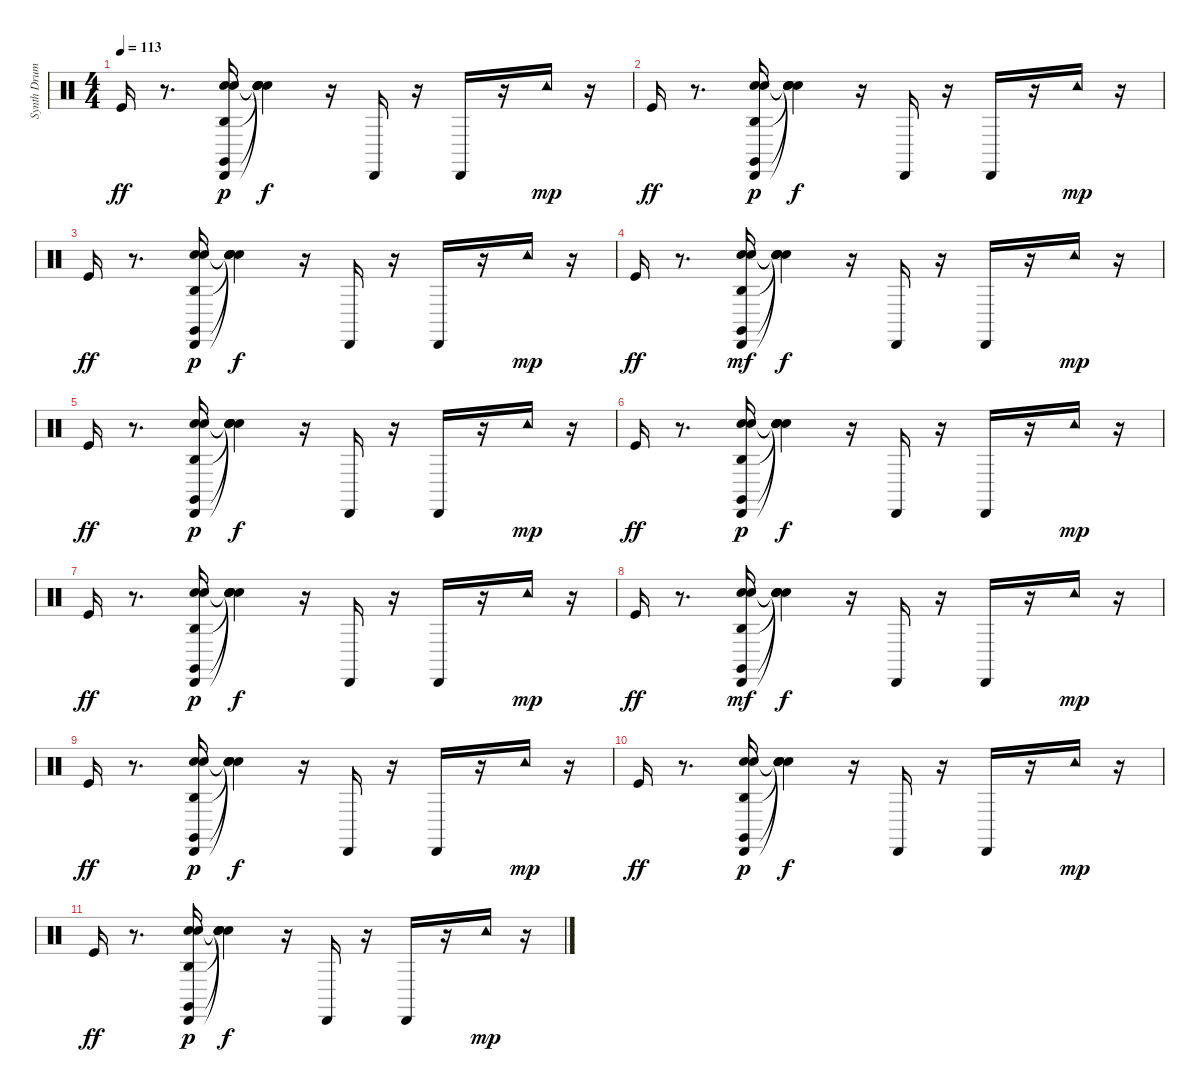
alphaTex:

\track ("Synth Drums" "Synth Drum") {instrument percussion}
\staff {score}
\articulation defaults
\ts (4 4)
\tempo 113
\clef neutral
\ks c "Kick (hit)".16{dy ff}
r.8{d} ("Cabasa (hit)" "Claves (hit)" "Agogo high (hit)" "Electric Snare (hit)" "Snare (hit) 2").16{dy p} ("Snare (hit)"{t} "Snare (hit)"{t} "Snare (hit)"{t} "Snare (hit)"{t} "Snare (hit)"{t}).4{dy f} r.16 "Cabasa (hit)".16 r.16 "Cabasa (hit)".16 r.16 "Tambourine (hit)".16{dy mp} r.16 |
"Kick (hit)".16{dy ff} r.8{d} ("Cabasa (hit)" "Claves (hit)" "Agogo high (hit)" "Electric Snare (hit)" "Snare (hit) 2").16{dy p} ("Snare (hit)"{t} "Snare (hit)"{t} "Snare (hit)"{t} "Snare (hit)"{t} "Snare (hit)"{t}).4{dy f} r.16 "Cabasa (hit)".16 r.16 "Cabasa (hit)".16 r.16 "Tambourine (hit)".16{dy mp} r.16 |
"Kick (hit)".16{dy ff} r.8{d} ("Cabasa (hit)" "Claves (hit)" "Agogo high (hit)" "Electric Snare (hit)" "Snare (hit) 2").16{dy p} ("Snare (hit)"{t} "Snare (hit)"{t} "Snare (hit)"{t} "Snare (hit)"{t} "Snare (hit)"{t}).4{dy f} r.16 "Cabasa (hit)".16 r.16 "Cabasa (hit)".16 r.16 "Tambourine (hit)".16{dy mp} r.16 |
"Kick (hit)".16{dy ff} r.8{d} ("Agogo high (hit)" "Claves (hit)" "Cabasa (hit)" "Electric Snare (hit)" "Snare (hit) 2").16{dy mf} ("Snare (hit)"{t} "Snare (hit)"{t} "Snare (hit)"{t} "Snare (hit)"{t} "Snare (hit)"{t}).4{dy f} r.16 "Cabasa (hit)".16 r.16 "Cabasa (hit)".16 r.16 "Tambourine (hit)".16{dy mp} r.16 |
"Kick (hit)".16{dy ff} r.8{d} ("Cabasa (hit)" "Claves (hit)" "Agogo high (hit)" "Electric Snare (hit)" "Snare (hit) 2").16{dy p} ("Snare (hit)"{t} "Snare (hit)"{t} "Snare (hit)"{t} "Snare (hit)"{t} "Snare (hit)"{t}).4{dy f} r.16 "Cabasa (hit)".16 r.16 "Cabasa (hit)".16 r.16 "Tambourine (hit)".16{dy mp} r.16 |
"Kick (hit)".16{dy ff} r.8{d} ("Cabasa (hit)" "Claves (hit)" "Agogo high (hit)" "Electric Snare (hit)" "Snare (hit) 2").16{dy p} ("Snare (hit)"{t} "Snare (hit)"{t} "Snare (hit)"{t} "Snare (hit)"{t} "Snare (hit)"{t}).4{dy f} r.16 "Cabasa (hit)".16 r.16 "Cabasa (hit)".16 r.16 "Tambourine (hit)".16{dy mp} r.16 |
"Kick (hit)".16{dy ff} r.8{d} ("Cabasa (hit)" "Claves (hit)" "Agogo high (hit)" "Electric Snare (hit)" "Snare (hit) 2").16{dy p} ("Snare (hit)"{t} "Snare (hit)"{t} "Snare (hit)"{t} "Snare (hit)"{t} "Snare (hit)"{t}).4{dy f} r.16 "Cabasa (hit)".16 r.16 "Cabasa (hit)".16 r.16 "Tambourine (hit)".16{dy mp} r.16 |
"Kick (hit)".16{dy ff} r.8{d} ("Agogo high (hit)" "Claves (hit)" "Cabasa (hit)" "Electric Snare (hit)" "Snare (hit) 2").16{dy mf} ("Snare (hit)"{t} "Snare (hit)"{t} "Snare (hit)"{t} "Snare (hit)"{t} "Snare (hit)"{t}).4{dy f} r.16 "Cabasa (hit)".16 r.16 "Cabasa (hit)".16 r.16 "Tambourine (hit)".16{dy mp} r.16 |
"Kick (hit)".16{dy ff} r.8{d} ("Cabasa (hit)" "Claves (hit)" "Agogo high (hit)" "Electric Snare (hit)" "Snare (hit) 2").16{dy p} ("Snare (hit)"{t} "Snare (hit)"{t} "Snare (hit)"{t} "Snare (hit)"{t} "Snare (hit)"{t}).4{dy f} r.16 "Cabasa (hit)".16 r.16 "Cabasa (hit)".16 r.16 "Tambourine (hit)".16{dy mp} r.16 |
"Kick (hit)".16{dy ff} r.8{d} ("Cabasa (hit)" "Claves (hit)" "Agogo high (hit)" "Electric Snare (hit)" "Snare (hit) 2").16{dy p} ("Snare (hit)"{t} "Snare (hit)"{t} "Snare (hit)"{t} "Snare (hit)"{t} "Snare (hit)"{t}).4{dy f} r.16 "Cabasa (hit)".16 r.16 "Cabasa (hit)".16 r.16 "Tambourine (hit)".16{dy mp} r.16 |
"Kick (hit)".16{dy ff} r.8{d} ("Cabasa (hit)" "Claves (hit)" "Agogo high (hit)" "Electric Snare (hit)" "Snare (hit) 2").16{dy p} ("Snare (hit)"{t} "Snare (hit)"{t} "Snare (hit)"{t} "Snare (hit)"{t} "Snare (hit)"{t}).4{dy f} r.16 "Cabasa (hit)".16 r.16 "Cabasa (hit)".16 r.16 "Tambourine (hit)".16{dy mp} r.16
